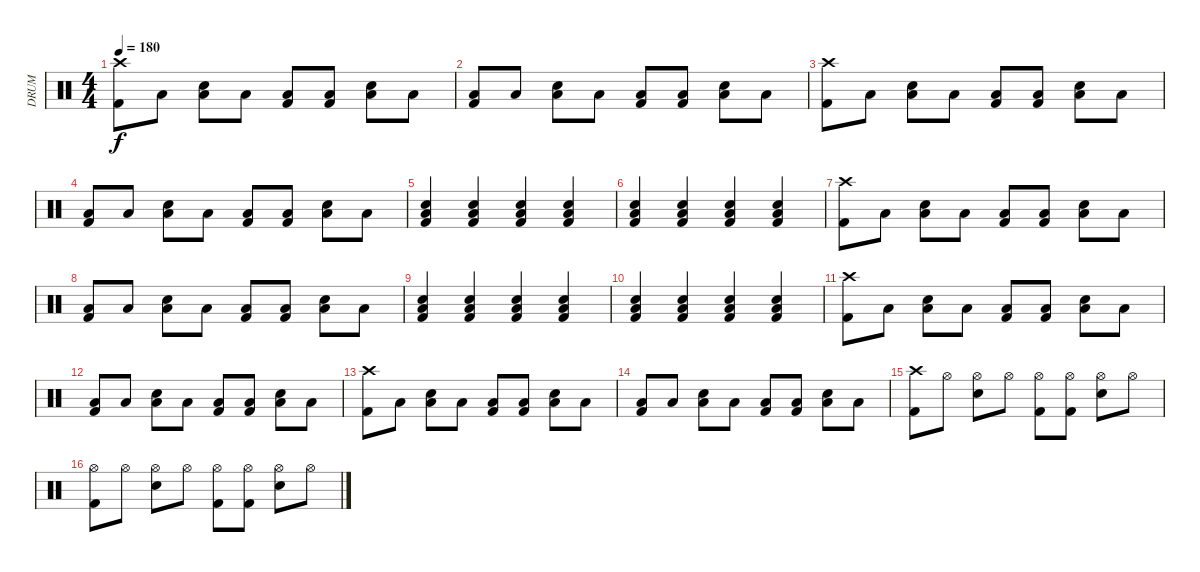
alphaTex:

\track ("DRUM" "DRUM") {instrument percussion}
\staff {score}
\articulation defaults
\ts (4 4)
\tempo 180
\clef neutral
\ks c
("Crash high (hit)" "Kick (hit) 2").8{dy f} "Low Floor Tom (hit)".8{volume 10} ("Low Floor Tom (hit)" "Snare (hit) 2").8 "Low Floor Tom (hit)".8{volume 10} ("Low Floor Tom (hit)" "Kick (hit) 2").8 ("Low Floor Tom (hit)" "Kick (hit) 2").8{volume 10} ("Low Floor Tom (hit)" "Snare (hit) 2").8 "Low Floor Tom (hit)".8{volume 10} |
("Low Floor Tom (hit)" "Kick (hit) 2").8 "Low Floor Tom (hit)".8{volume 10} ("Low Floor Tom (hit)" "Snare (hit) 2").8 "Low Floor Tom (hit)".8{volume 10} ("Low Floor Tom (hit)" "Kick (hit) 2").8 ("Low Floor Tom (hit)" "Kick (hit) 2").8{volume 10} ("Low Floor Tom (hit)" "Snare (hit) 2").8 "Low Floor Tom (hit)".8{volume 10} |
("Crash high (hit)" "Kick (hit) 2").8 "Low Floor Tom (hit)".8{volume 10} ("Low Floor Tom (hit)" "Snare (hit) 2").8 "Low Floor Tom (hit)".8{volume 10} ("Low Floor Tom (hit)" "Kick (hit) 2").8 ("Low Floor Tom (hit)" "Kick (hit) 2").8{volume 10} ("Low Floor Tom (hit)" "Snare (hit) 2").8 "Low Floor Tom (hit)".8{volume 10} |
("Low Floor Tom (hit)" "Kick (hit) 2").8 "Low Floor Tom (hit)".8{volume 10} ("Low Floor Tom (hit)" "Snare (hit) 2").8 "Low Floor Tom (hit)".8{volume 10} ("Low Floor Tom (hit)" "Kick (hit) 2").8 ("Low Floor Tom (hit)" "Kick (hit) 2").8{volume 10} ("Low Floor Tom (hit)" "Snare (hit) 2").8 "Low Floor Tom (hit)".8{volume 10} |
("Low Floor Tom (hit)" "Snare (hit) 2" "Kick (hit) 2").4 ("Low Floor Tom (hit)" "Snare (hit) 2" "Kick (hit) 2").4 ("Low Floor Tom (hit)" "Snare (hit) 2" "Kick (hit) 2").4 ("Low Floor Tom (hit)" "Snare (hit) 2" "Kick (hit) 2").4 |
("Low Floor Tom (hit)" "Snare (hit) 2" "Kick (hit) 2").4 ("Low Floor Tom (hit)" "Snare (hit) 2" "Kick (hit) 2").4 ("Low Floor Tom (hit)" "Snare (hit) 2" "Kick (hit) 2").4 ("Low Floor Tom (hit)" "Snare (hit) 2" "Kick (hit) 2").4 |
("Crash high (hit)" "Kick (hit) 2").8 "Low Floor Tom (hit)".8{volume 10} ("Low Floor Tom (hit)" "Snare (hit) 2").8 "Low Floor Tom (hit)".8{volume 10} ("Low Floor Tom (hit)" "Kick (hit) 2").8 ("Low Floor Tom (hit)" "Kick (hit) 2").8{volume 10} ("Low Floor Tom (hit)" "Snare (hit) 2").8 "Low Floor Tom (hit)".8{volume 10} |
("Low Floor Tom (hit)" "Kick (hit) 2").8 "Low Floor Tom (hit)".8{volume 10} ("Low Floor Tom (hit)" "Snare (hit) 2").8 "Low Floor Tom (hit)".8{volume 10} ("Low Floor Tom (hit)" "Kick (hit) 2").8 ("Low Floor Tom (hit)" "Kick (hit) 2").8{volume 10} ("Low Floor Tom (hit)" "Snare (hit) 2").8 "Low Floor Tom (hit)".8{volume 10} |
("Low Floor Tom (hit)" "Snare (hit) 2" "Kick (hit) 2").4 ("Low Floor Tom (hit)" "Snare (hit) 2" "Kick (hit) 2").4 ("Low Floor Tom (hit)" "Snare (hit) 2" "Kick (hit) 2").4 ("Low Floor Tom (hit)" "Snare (hit) 2" "Kick (hit) 2").4 |
("Low Floor Tom (hit)" "Snare (hit) 2" "Kick (hit) 2").4 ("Low Floor Tom (hit)" "Snare (hit) 2" "Kick (hit) 2").4 ("Low Floor Tom (hit)" "Snare (hit) 2" "Kick (hit) 2").4 ("Low Floor Tom (hit)" "Snare (hit) 2" "Kick (hit) 2").4 |
("Crash high (hit)" "Kick (hit) 2").8 "Low Floor Tom (hit)".8{volume 10} ("Low Floor Tom (hit)" "Snare (hit) 2").8 "Low Floor Tom (hit)".8{volume 10} ("Low Floor Tom (hit)" "Kick (hit) 2").8 ("Low Floor Tom (hit)" "Kick (hit) 2").8{volume 10} ("Low Floor Tom (hit)" "Snare (hit) 2").8 "Low Floor Tom (hit)".8{volume 10} |
("Low Floor Tom (hit)" "Kick (hit) 2").8 "Low Floor Tom (hit)".8{volume 10} ("Low Floor Tom (hit)" "Snare (hit) 2").8 "Low Floor Tom (hit)".8{volume 10} ("Low Floor Tom (hit)" "Kick (hit) 2").8 ("Low Floor Tom (hit)" "Kick (hit) 2").8{volume 10} ("Low Floor Tom (hit)" "Snare (hit) 2").8 "Low Floor Tom (hit)".8{volume 10} |
("Crash high (hit)" "Kick (hit) 2").8 "Low Floor Tom (hit)".8{volume 10} ("Low Floor Tom (hit)" "Snare (hit) 2").8 "Low Floor Tom (hit)".8{volume 10} ("Low Floor Tom (hit)" "Kick (hit) 2").8 ("Low Floor Tom (hit)" "Kick (hit) 2").8{volume 10} ("Low Floor Tom (hit)" "Snare (hit) 2").8 "Low Floor Tom (hit)".8{volume 10} |
("Low Floor Tom (hit)" "Kick (hit) 2").8 "Low Floor Tom (hit)".8{volume 10} ("Low Floor Tom (hit)" "Snare (hit) 2").8 "Low Floor Tom (hit)".8{volume 10} ("Low Floor Tom (hit)" "Kick (hit) 2").8 ("Low Floor Tom (hit)" "Kick (hit) 2").8{volume 10} ("Low Floor Tom (hit)" "Snare (hit) 2").8 "Low Floor Tom (hit)".8{volume 10} |
("Crash high (hit)" "Kick (hit) 2").8 "Hi-Hat (open)".8{volume 10} ("Hi-Hat (open)" "Snare (hit) 2").8 "Hi-Hat (open)".8{volume 10} ("Hi-Hat (open)" "Kick (hit) 2").8 ("Hi-Hat (open)" "Kick (hit) 2").8{volume 10} ("Hi-Hat (open)" "Snare (hit) 2").8 "Hi-Hat (open)".8{volume 10} |
("Hi-Hat (open)" "Kick (hit) 2").8 "Hi-Hat (open)".8{volume 10} ("Hi-Hat (open)" "Snare (hit) 2").8 "Hi-Hat (open)".8{volume 10} ("Hi-Hat (open)" "Kick (hit) 2").8 ("Hi-Hat (open)" "Kick (hit) 2").8{volume 10} ("Hi-Hat (open)" "Snare (hit) 2").8 "Hi-Hat (open)".8{volume 10}
